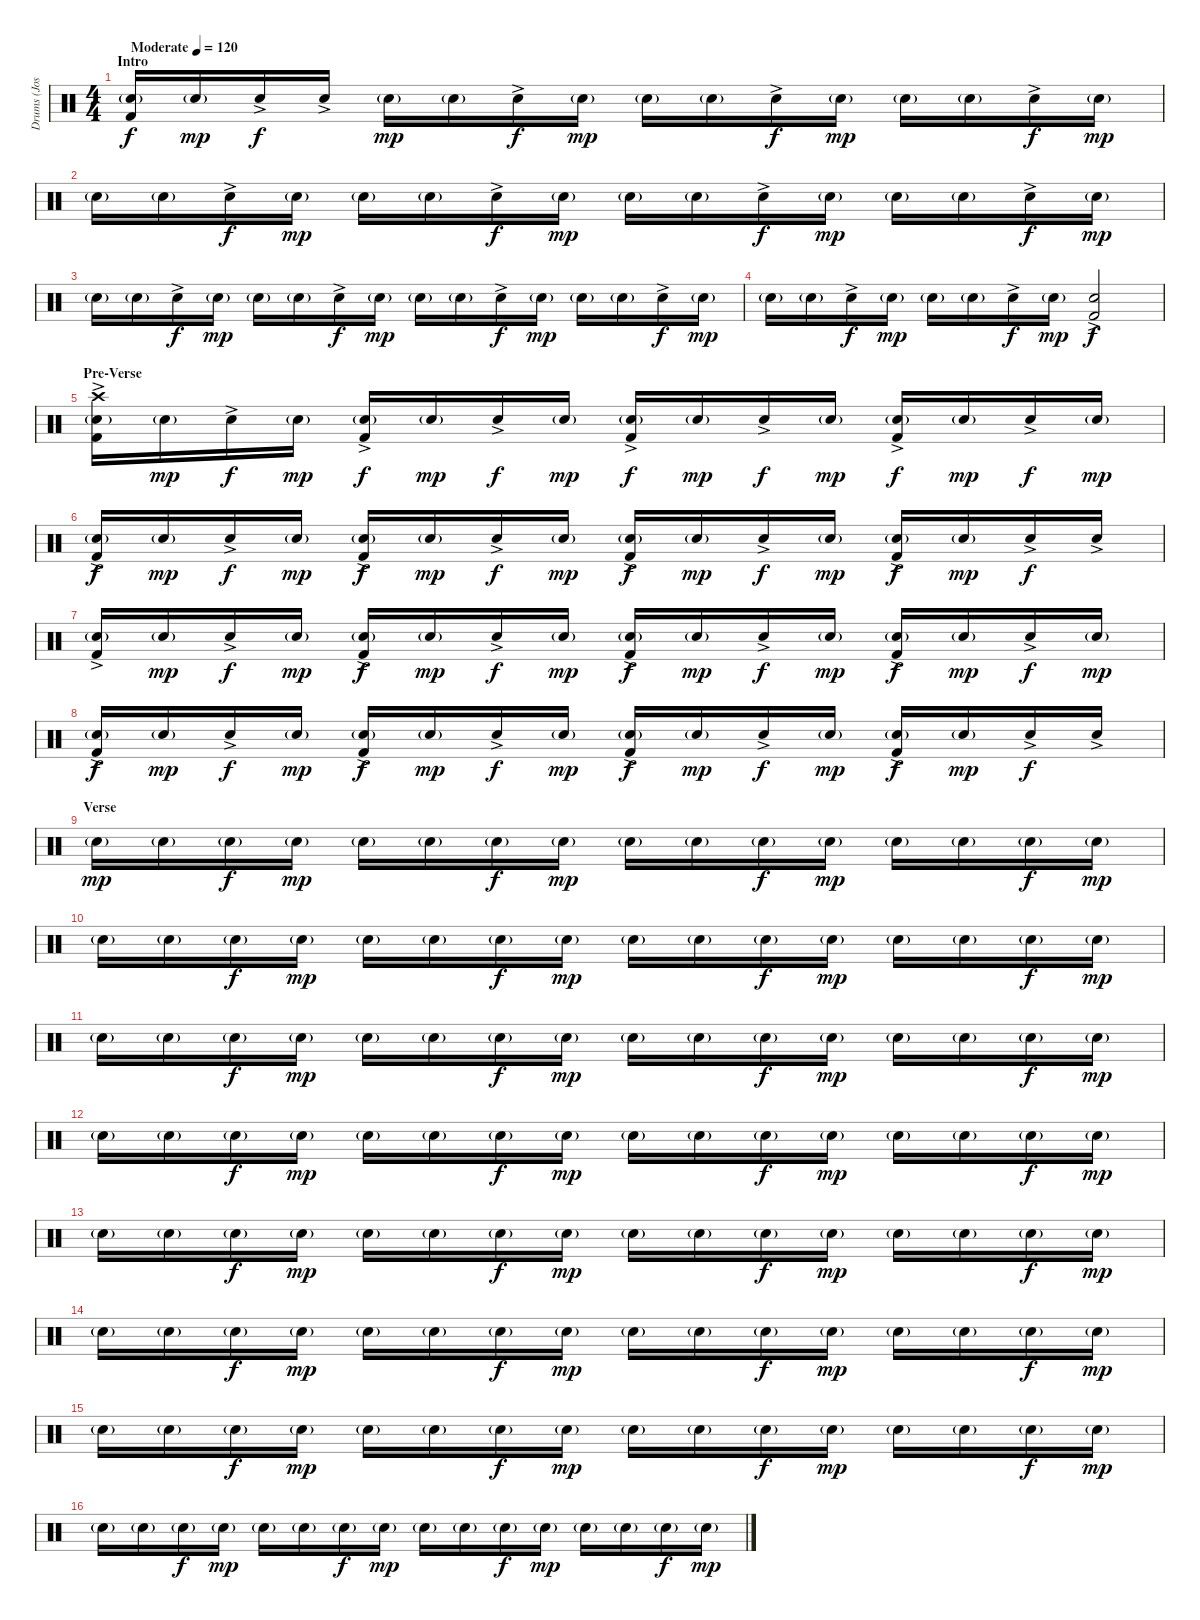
\track ("Drums (Josh Dun)" "Drums (Jos") {instrument percussion}
\staff {score}
\articulation defaults
\ts (4 4)
\section ("" "Intro")
\tempo (120 "Moderate")
\clef neutral
\ks c
("Snare (hit) 2"{g} "Kick (hit) 2").16{dy f} "Snare (hit) 2"{g}.16{dy mp} "Electric Snare (hit)"{ac}.16{dy f} "Electric Snare (hit)"{ac}.16 "Snare (hit) 2"{g}.16{dy mp} "Snare (hit) 2"{g}.16 "Electric Snare (hit)"{ac}.16{dy f} "Snare (hit) 2"{g}.16{dy mp} "Snare (hit) 2"{g}.16 "Snare (hit) 2"{g}.16 "Electric Snare (hit)"{ac}.16{dy f} "Snare (hit) 2"{g}.16{dy mp} "Snare (hit) 2"{g}.16 "Snare (hit) 2"{g}.16 "Electric Snare (hit)"{ac}.16{dy f} "Snare (hit) 2"{g}.16{dy mp} |
"Snare (hit) 2"{g}.16 "Snare (hit) 2"{g}.16 "Electric Snare (hit)"{ac}.16{dy f} "Snare (hit) 2"{g}.16{dy mp} "Snare (hit) 2"{g}.16 "Snare (hit) 2"{g}.16 "Electric Snare (hit)"{ac}.16{dy f} "Snare (hit) 2"{g}.16{dy mp} "Snare (hit) 2"{g}.16 "Snare (hit) 2"{g}.16 "Electric Snare (hit)"{ac}.16{dy f} "Snare (hit) 2"{g}.16{dy mp} "Snare (hit) 2"{g}.16 "Snare (hit) 2"{g}.16 "Electric Snare (hit)"{ac}.16{dy f} "Snare (hit) 2"{g}.16{dy mp} |
"Snare (hit) 2"{g}.16 "Snare (hit) 2"{g}.16 "Electric Snare (hit)"{ac}.16{dy f} "Snare (hit) 2"{g}.16{dy mp} "Snare (hit) 2"{g}.16 "Snare (hit) 2"{g}.16 "Electric Snare (hit)"{ac}.16{dy f} "Snare (hit) 2"{g}.16{dy mp} "Snare (hit) 2"{g}.16 "Snare (hit) 2"{g}.16 "Electric Snare (hit)"{ac}.16{dy f} "Snare (hit) 2"{g}.16{dy mp} "Snare (hit) 2"{g}.16 "Snare (hit) 2"{g}.16 "Electric Snare (hit)"{ac}.16{dy f} "Snare (hit) 2"{g}.16{dy mp} |
"Snare (hit) 2"{g}.16 "Snare (hit) 2"{g}.16 "Electric Snare (hit)"{ac}.16{dy f} "Snare (hit) 2"{g}.16{dy mp} "Snare (hit) 2"{g}.16 "Snare (hit) 2"{g}.16 "Electric Snare (hit)"{ac}.16{dy f} "Snare (hit) 2"{g}.16{dy mp} ("Electric Snare (hit)"{ac} "Kick (hit) 2").2{dy f} |
\section ("" "Pre-Verse")
("Crash high (hit)"{ac} "Snare (hit) 2"{g} "Kick (hit) 2"{ac}).16 "Snare (hit) 2"{g}.16{dy mp} "Electric Snare (hit)"{ac}.16{dy f} "Snare (hit) 2"{g}.16{dy mp} ("Snare (hit) 2"{g} "Kick (hit) 2"{ac}).16{dy f} "Snare (hit) 2"{g}.16{dy mp} "Electric Snare (hit)"{ac}.16{dy f} "Snare (hit) 2"{g}.16{dy mp} ("Snare (hit) 2"{g} "Kick (hit) 2"{ac}).16{dy f} "Snare (hit) 2"{g}.16{dy mp} "Electric Snare (hit)"{ac}.16{dy f} "Snare (hit) 2"{g}.16{dy mp} ("Snare (hit) 2"{g} "Kick (hit) 2"{ac}).16{dy f} "Snare (hit) 2"{g}.16{dy mp} "Electric Snare (hit)"{ac}.16{dy f} "Snare (hit) 2"{g}.16{dy mp} |
("Snare (hit) 2"{g} "Kick (hit) 2"{ac}).16{dy f} "Snare (hit) 2"{g}.16{dy mp} "Electric Snare (hit)"{ac}.16{dy f} "Snare (hit) 2"{g}.16{dy mp} ("Snare (hit) 2"{g} "Kick (hit) 2"{ac}).16{dy f} "Snare (hit) 2"{g}.16{dy mp} "Electric Snare (hit)"{ac}.16{dy f} "Snare (hit) 2"{g}.16{dy mp} ("Snare (hit) 2"{g} "Kick (hit) 2"{ac}).16{dy f} "Snare (hit) 2"{g}.16{dy mp} "Electric Snare (hit)"{ac}.16{dy f} "Snare (hit) 2"{g}.16{dy mp} ("Snare (hit) 2"{g} "Kick (hit) 2"{ac}).16{dy f} "Snare (hit) 2"{g}.16{dy mp} "Electric Snare (hit)"{ac}.16{dy f} "Snare (hit) 2"{ac}.16 |
("Snare (hit) 2"{g} "Kick (hit) 2"{ac}).16 "Snare (hit) 2"{g}.16{dy mp} "Electric Snare (hit)"{ac}.16{dy f} "Snare (hit) 2"{g}.16{dy mp} ("Snare (hit) 2"{g} "Kick (hit) 2"{ac}).16{dy f} "Snare (hit) 2"{g}.16{dy mp} "Electric Snare (hit)"{ac}.16{dy f} "Snare (hit) 2"{g}.16{dy mp} ("Snare (hit) 2"{g} "Kick (hit) 2"{ac}).16{dy f} "Snare (hit) 2"{g}.16{dy mp} "Electric Snare (hit)"{ac}.16{dy f} "Snare (hit) 2"{g}.16{dy mp} ("Snare (hit) 2"{g} "Kick (hit) 2"{ac}).16{dy f} "Snare (hit) 2"{g}.16{dy mp} "Electric Snare (hit)"{ac}.16{dy f} "Snare (hit) 2"{g}.16{dy mp} |
("Snare (hit) 2"{g} "Kick (hit) 2"{ac}).16{dy f} "Snare (hit) 2"{g}.16{dy mp} "Electric Snare (hit)"{ac}.16{dy f} "Snare (hit) 2"{g}.16{dy mp} ("Snare (hit) 2"{g} "Kick (hit) 2"{ac}).16{dy f} "Snare (hit) 2"{g}.16{dy mp} "Electric Snare (hit)"{ac}.16{dy f} "Snare (hit) 2"{g}.16{dy mp} ("Snare (hit) 2"{g} "Kick (hit) 2"{ac}).16{dy f} "Snare (hit) 2"{g}.16{dy mp} "Electric Snare (hit)"{ac}.16{dy f} "Snare (hit) 2"{g}.16{dy mp} ("Snare (hit) 2"{g} "Kick (hit) 2"{ac}).16{dy f} "Snare (hit) 2"{g}.16{dy mp} "Electric Snare (hit)"{ac}.16{dy f} "Snare (hit) 2"{ac}.16 |
\section ("" "Verse")
"Snare (hit) 2"{g}.16{dy mp} "Snare (hit) 2"{g}.16 "Electric Snare (hit)"{g}.16{dy f} "Snare (hit) 2"{g}.16{dy mp} "Snare (hit) 2"{g}.16 "Snare (hit) 2"{g}.16 "Electric Snare (hit)"{g}.16{dy f} "Snare (hit) 2"{g}.16{dy mp} "Snare (hit) 2"{g}.16 "Snare (hit) 2"{g}.16 "Electric Snare (hit)"{g}.16{dy f} "Snare (hit) 2"{g}.16{dy mp} "Snare (hit) 2"{g}.16 "Snare (hit) 2"{g}.16 "Electric Snare (hit)"{g}.16{dy f} "Snare (hit) 2"{g}.16{dy mp} |
"Snare (hit) 2"{g}.16 "Snare (hit) 2"{g}.16 "Electric Snare (hit)"{g}.16{dy f} "Snare (hit) 2"{g}.16{dy mp} "Snare (hit) 2"{g}.16 "Snare (hit) 2"{g}.16 "Electric Snare (hit)"{g}.16{dy f} "Snare (hit) 2"{g}.16{dy mp} "Snare (hit) 2"{g}.16 "Snare (hit) 2"{g}.16 "Electric Snare (hit)"{g}.16{dy f} "Snare (hit) 2"{g}.16{dy mp} "Snare (hit) 2"{g}.16 "Snare (hit) 2"{g}.16 "Electric Snare (hit)"{g}.16{dy f} "Snare (hit) 2"{g}.16{dy mp} |
"Snare (hit) 2"{g}.16 "Snare (hit) 2"{g}.16 "Electric Snare (hit)"{g}.16{dy f} "Snare (hit) 2"{g}.16{dy mp} "Snare (hit) 2"{g}.16 "Snare (hit) 2"{g}.16 "Electric Snare (hit)"{g}.16{dy f} "Snare (hit) 2"{g}.16{dy mp} "Snare (hit) 2"{g}.16 "Snare (hit) 2"{g}.16 "Electric Snare (hit)"{g}.16{dy f} "Snare (hit) 2"{g}.16{dy mp} "Snare (hit) 2"{g}.16 "Snare (hit) 2"{g}.16 "Electric Snare (hit)"{g}.16{dy f} "Snare (hit) 2"{g}.16{dy mp} |
"Snare (hit) 2"{g}.16 "Snare (hit) 2"{g}.16 "Electric Snare (hit)"{g}.16{dy f} "Snare (hit) 2"{g}.16{dy mp} "Snare (hit) 2"{g}.16 "Snare (hit) 2"{g}.16 "Electric Snare (hit)"{g}.16{dy f} "Snare (hit) 2"{g}.16{dy mp} "Snare (hit) 2"{g}.16 "Snare (hit) 2"{g}.16 "Electric Snare (hit)"{g}.16{dy f} "Snare (hit) 2"{g}.16{dy mp} "Snare (hit) 2"{g}.16 "Snare (hit) 2"{g}.16 "Electric Snare (hit)"{g}.16{dy f} "Snare (hit) 2"{g}.16{dy mp} |
"Snare (hit) 2"{g}.16 "Snare (hit) 2"{g}.16 "Electric Snare (hit)"{g}.16{dy f} "Snare (hit) 2"{g}.16{dy mp} "Snare (hit) 2"{g}.16 "Snare (hit) 2"{g}.16 "Electric Snare (hit)"{g}.16{dy f} "Snare (hit) 2"{g}.16{dy mp} "Snare (hit) 2"{g}.16 "Snare (hit) 2"{g}.16 "Electric Snare (hit)"{g}.16{dy f} "Snare (hit) 2"{g}.16{dy mp} "Snare (hit) 2"{g}.16 "Snare (hit) 2"{g}.16 "Electric Snare (hit)"{g}.16{dy f} "Snare (hit) 2"{g}.16{dy mp} |
"Snare (hit) 2"{g}.16 "Snare (hit) 2"{g}.16 "Electric Snare (hit)"{g}.16{dy f} "Snare (hit) 2"{g}.16{dy mp} "Snare (hit) 2"{g}.16 "Snare (hit) 2"{g}.16 "Electric Snare (hit)"{g}.16{dy f} "Snare (hit) 2"{g}.16{dy mp} "Snare (hit) 2"{g}.16 "Snare (hit) 2"{g}.16 "Electric Snare (hit)"{g}.16{dy f} "Snare (hit) 2"{g}.16{dy mp} "Snare (hit) 2"{g}.16 "Snare (hit) 2"{g}.16 "Electric Snare (hit)"{g}.16{dy f} "Snare (hit) 2"{g}.16{dy mp} |
"Snare (hit) 2"{g}.16 "Snare (hit) 2"{g}.16 "Electric Snare (hit)"{g}.16{dy f} "Snare (hit) 2"{g}.16{dy mp} "Snare (hit) 2"{g}.16 "Snare (hit) 2"{g}.16 "Electric Snare (hit)"{g}.16{dy f} "Snare (hit) 2"{g}.16{dy mp} "Snare (hit) 2"{g}.16 "Snare (hit) 2"{g}.16 "Electric Snare (hit)"{g}.16{dy f} "Snare (hit) 2"{g}.16{dy mp} "Snare (hit) 2"{g}.16 "Snare (hit) 2"{g}.16 "Electric Snare (hit)"{g}.16{dy f} "Snare (hit) 2"{g}.16{dy mp} |
"Snare (hit) 2"{g}.16 "Snare (hit) 2"{g}.16 "Electric Snare (hit)"{g}.16{dy f} "Snare (hit) 2"{g}.16{dy mp} "Snare (hit) 2"{g}.16 "Snare (hit) 2"{g}.16 "Electric Snare (hit)"{g}.16{dy f} "Snare (hit) 2"{g}.16{dy mp} "Snare (hit) 2"{g}.16 "Snare (hit) 2"{g}.16 "Electric Snare (hit)"{g}.16{dy f} "Snare (hit) 2"{g}.16{dy mp} "Snare (hit) 2"{g}.16 "Snare (hit) 2"{g}.16 "Electric Snare (hit)"{g}.16{dy f} "Snare (hit) 2"{g}.16{dy mp}
